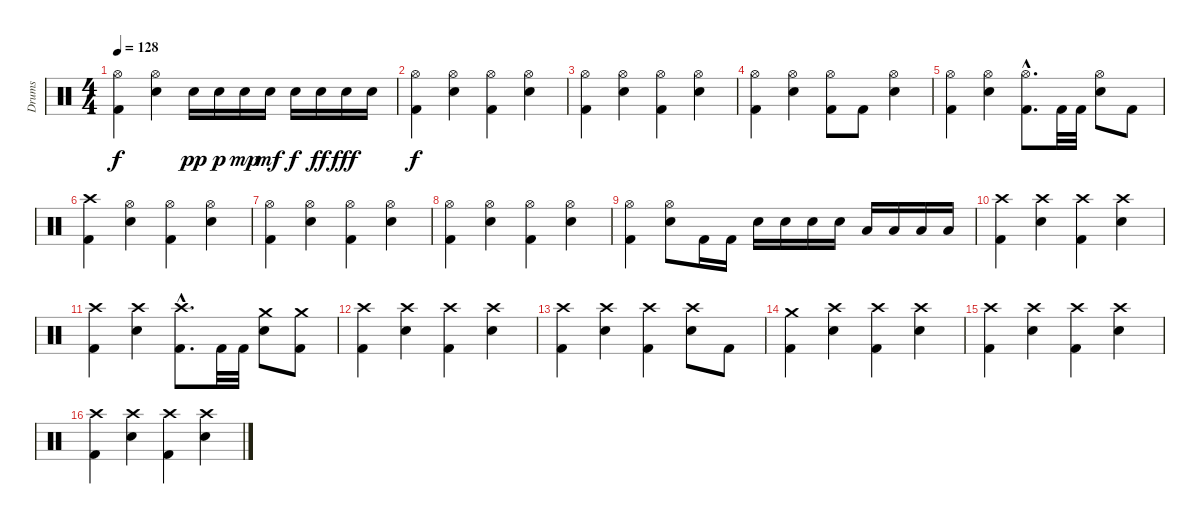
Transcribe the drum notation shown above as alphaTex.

\track ("Drums" "Drums") {instrument percussion}
\staff {score}
\articulation defaults
\ts (4 4)
\tempo 128
\clef neutral
\ks c
("Hi-Hat (open)" "Kick (hit) 2").4{dy f} ("Hi-Hat (open)" "Snare (hit) 2").4 "Snare (hit) 2".16{dy pp} "Snare (hit) 2".16{dy p} "Snare (hit) 2".16{dy mp} "Snare (hit) 2".16{dy mf} "Snare (hit) 2".16{dy f} "Snare (hit) 2".16{dy ff} "Snare (hit) 2".16{dy fff} "Snare (hit) 2".16 |
("Hi-Hat (open)" "Kick (hit) 2").4{dy f} ("Hi-Hat (open)" "Snare (hit) 2").4 ("Hi-Hat (open)" "Kick (hit) 2").4 ("Hi-Hat (open)" "Snare (hit) 2").4 |
("Hi-Hat (open)" "Kick (hit) 2").4 ("Hi-Hat (open)" "Snare (hit) 2").4 ("Hi-Hat (open)" "Kick (hit) 2").4 ("Hi-Hat (open)" "Snare (hit) 2").4 |
("Hi-Hat (open)" "Kick (hit) 2").4 ("Hi-Hat (open)" "Snare (hit) 2").4 ("Hi-Hat (open)" "Kick (hit) 2").8 "Kick (hit) 2".8 ("Hi-Hat (open)" "Snare (hit) 2").4 |
("Hi-Hat (open)" "Kick (hit) 2").4 ("Hi-Hat (open)" "Snare (hit) 2").4 ("Hi-Hat (open)"{hac} "Kick (hit) 2"{hac}).8{d} "Kick (hit) 2".32 "Kick (hit) 2".32 ("Hi-Hat (open)" "Snare (hit) 2").8 "Kick (hit) 2".8 |
("Crash high (hit)" "Kick (hit) 2").4 ("Hi-Hat (open)" "Snare (hit) 2").4 ("Hi-Hat (open)" "Kick (hit) 2").4 ("Hi-Hat (open)" "Snare (hit) 2").4 |
("Hi-Hat (open)" "Kick (hit) 2").4 ("Hi-Hat (open)" "Snare (hit) 2").4 ("Hi-Hat (open)" "Kick (hit) 2").4 ("Hi-Hat (open)" "Snare (hit) 2").4 |
("Hi-Hat (open)" "Kick (hit) 2").4 ("Hi-Hat (open)" "Snare (hit) 2").4 ("Hi-Hat (open)" "Kick (hit) 2").4 ("Hi-Hat (open)" "Snare (hit) 2").4 |
("Hi-Hat (open)" "Kick (hit) 2").4 ("Hi-Hat (open)" "Snare (hit) 2").8 "Kick (hit) 2".16 "Kick (hit) 2".16 "Snare (hit) 2".16 "Snare (hit) 2".16 "Snare (hit) 2".16 "Snare (hit) 2".16 "Low Tom (hit)".16 "Low Tom (hit)".16 "Low Tom (hit)".16 "Low Tom (hit)".16 |
("Crash high (hit)" "Kick (hit) 2").4 ("Crash high (hit)" "Snare (hit) 2").4 ("Crash high (hit)" "Kick (hit) 2").4 ("Crash high (hit)" "Snare (hit) 2").4 |
("Crash high (hit)" "Kick (hit) 2").4 ("Crash high (hit)" "Snare (hit) 2").4 ("Crash high (hit)"{hac} "Kick (hit) 2"{hac}).8{d} "Kick (hit) 2".32 "Kick (hit) 2".32 ("Crash medium (hit)" "Snare (hit) 2").8 ("Crash medium (hit)" "Kick (hit) 2").8 |
("Crash high (hit)" "Kick (hit) 2").4 ("Crash high (hit)" "Snare (hit) 2").4 ("Crash high (hit)" "Kick (hit) 2").4 ("Crash high (hit)" "Snare (hit) 2").4 |
("Crash high (hit)" "Kick (hit) 2").4 ("Crash high (hit)" "Snare (hit) 2").4 ("Crash high (hit)" "Kick (hit) 2").4 ("Crash high (hit)" "Snare (hit) 2").8 "Kick (hit) 2".8 |
("Crash medium (hit)" "Kick (hit) 2").4 ("Crash high (hit)" "Snare (hit) 2").4 ("Crash high (hit)" "Kick (hit) 2").4 ("Crash high (hit)" "Snare (hit) 2").4 |
("Crash high (hit)" "Kick (hit) 2").4 ("Crash high (hit)" "Snare (hit) 2").4 ("Crash high (hit)" "Kick (hit) 2").4 ("Crash high (hit)" "Snare (hit) 2").4 |
("Crash high (hit)" "Kick (hit) 2").4 ("Crash high (hit)" "Snare (hit) 2").4 ("Crash high (hit)" "Kick (hit) 2").4 ("Crash high (hit)" "Snare (hit) 2").4
